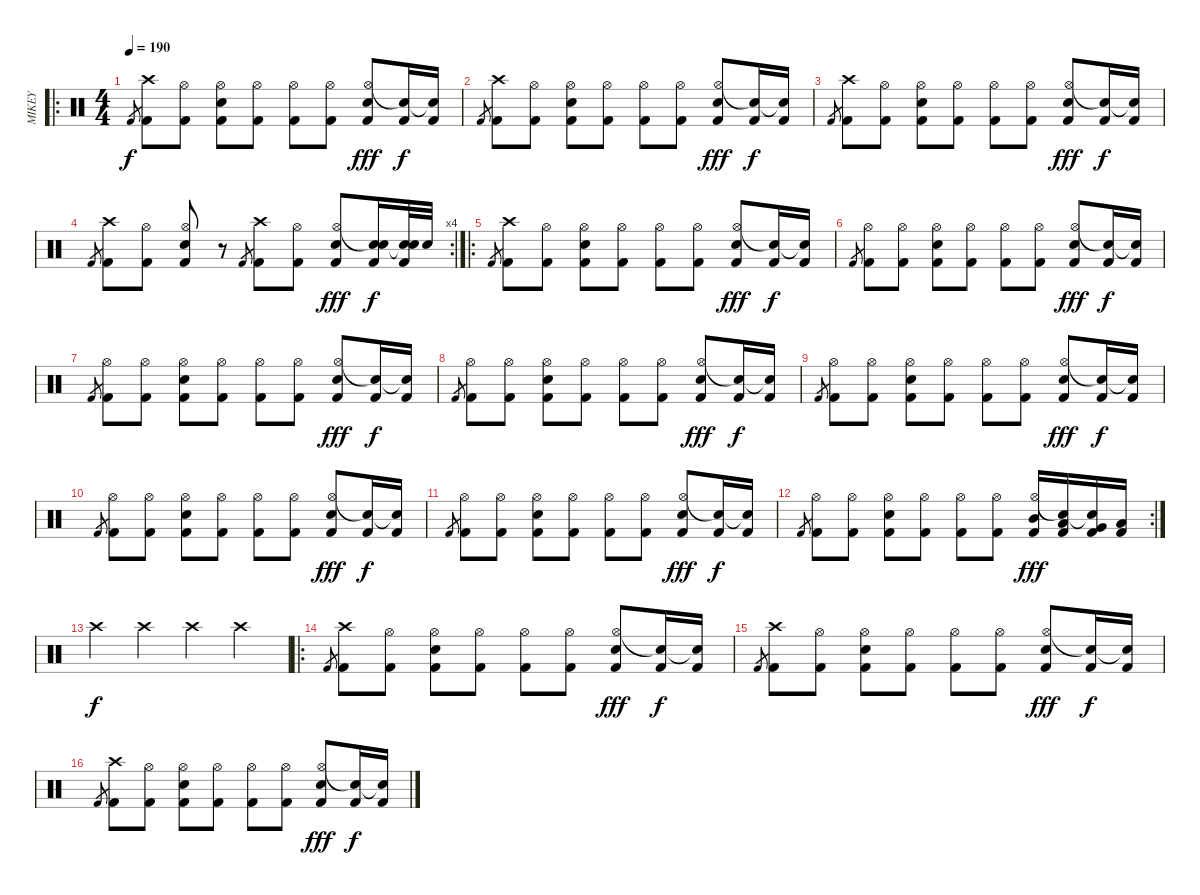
\track ("MIKEY" "MIKEY") {instrument percussion}
\staff {score}
\articulation defaults
\ro
\ts (4 4)
\tempo 190
\clef neutral
\ks c "Kick (hit) 2".8{gr dy f}
("Crash high (hit)" "Kick (hit) 2").8 ("Hi-Hat (open)" "Kick (hit) 2").8 ("Hi-Hat (open)" "Electric Snare (hit)" "Kick (hit) 2").8 ("Hi-Hat (open)" "Kick (hit) 2").8 ("Hi-Hat (open)" "Kick (hit) 2").8 ("Hi-Hat (open)" "Kick (hit) 2").8 ("Hi-Hat (open)" "Electric Snare (hit)" "Kick (hit) 2").8{dy fff} ("Snare (hit)"{t} "Kick (hit) 2").16{dy f} ("Snare (hit)"{t} "Kick (hit) 2").16 |
"Kick (hit) 2".8{gr} ("Crash high (hit)" "Kick (hit) 2").8 ("Hi-Hat (open)" "Kick (hit) 2").8 ("Hi-Hat (open)" "Electric Snare (hit)" "Kick (hit) 2").8 ("Hi-Hat (open)" "Kick (hit) 2").8 ("Hi-Hat (open)" "Kick (hit) 2").8 ("Hi-Hat (open)" "Kick (hit) 2").8 ("Hi-Hat (open)" "Electric Snare (hit)" "Kick (hit) 2").8{dy fff} ("Snare (hit)"{t} "Kick (hit) 2").16{dy f} ("Snare (hit)"{t} "Kick (hit) 2").16 |
"Kick (hit) 2".8{gr} ("Crash high (hit)" "Kick (hit) 2").8 ("Hi-Hat (open)" "Kick (hit) 2").8 ("Hi-Hat (open)" "Electric Snare (hit)" "Kick (hit) 2").8 ("Hi-Hat (open)" "Kick (hit) 2").8 ("Hi-Hat (open)" "Kick (hit) 2").8 ("Hi-Hat (open)" "Kick (hit) 2").8 ("Hi-Hat (open)" "Electric Snare (hit)" "Kick (hit) 2").8{dy fff} ("Snare (hit)"{t} "Kick (hit) 2").16{dy f} ("Snare (hit)"{t} "Kick (hit) 2").16 |
\rc 4 "Kick (hit) 2".8{gr}
("Crash high (hit)" "Kick (hit) 2").8 ("Hi-Hat (open)" "Kick (hit) 2").8 ("Hi-Hat (open)" "Electric Snare (hit)" "Kick (hit) 2").8 r.8 "Kick (hit) 2".8{gr} ("Crash high (hit)" "Kick (hit) 2").8 ("Hi-Hat (open)" "Kick (hit) 2").8 ("Hi-Hat (open)" "Electric Snare (hit)" "Kick (hit) 2").8{dy fff} ("Snare (hit)"{t} "Electric Snare (hit)" "Kick (hit) 2").16{dy f} ("Snare (hit)"{t} "Electric Snare (hit)" "Kick (hit) 2").32 "Electric Snare (hit)".32 |
\ro "Kick (hit) 2".8{gr}
("Crash high (hit)" "Kick (hit) 2").8 ("Hi-Hat (open)" "Kick (hit) 2").8 ("Hi-Hat (open)" "Electric Snare (hit)" "Kick (hit) 2").8 ("Hi-Hat (open)" "Kick (hit) 2").8 ("Hi-Hat (open)" "Kick (hit) 2").8 ("Hi-Hat (open)" "Kick (hit) 2").8 ("Hi-Hat (open)" "Electric Snare (hit)" "Kick (hit) 2").8{dy fff} ("Snare (hit)"{t} "Kick (hit) 2").16{dy f} ("Snare (hit)"{t} "Kick (hit) 2").16 |
"Kick (hit) 2".8{gr} ("Hi-Hat (open)" "Kick (hit) 2").8 ("Hi-Hat (open)" "Kick (hit) 2").8 ("Hi-Hat (open)" "Electric Snare (hit)" "Kick (hit) 2").8 ("Hi-Hat (open)" "Kick (hit) 2").8 ("Hi-Hat (open)" "Kick (hit) 2").8 ("Hi-Hat (open)" "Kick (hit) 2").8 ("Hi-Hat (open)" "Electric Snare (hit)" "Kick (hit) 2").8{dy fff} ("Snare (hit)"{t} "Kick (hit) 2").16{dy f} ("Snare (hit)"{t} "Kick (hit) 2").16 |
"Kick (hit) 2".8{gr} ("Hi-Hat (open)" "Kick (hit) 2").8 ("Hi-Hat (open)" "Kick (hit) 2").8 ("Hi-Hat (open)" "Electric Snare (hit)" "Kick (hit) 2").8 ("Hi-Hat (open)" "Kick (hit) 2").8 ("Hi-Hat (open)" "Kick (hit) 2").8 ("Hi-Hat (open)" "Kick (hit) 2").8 ("Hi-Hat (open)" "Electric Snare (hit)" "Kick (hit) 2").8{dy fff} ("Snare (hit)"{t} "Kick (hit) 2").16{dy f} ("Snare (hit)"{t} "Kick (hit) 2").16 |
"Kick (hit) 2".8{gr} ("Hi-Hat (open)" "Kick (hit) 2").8 ("Hi-Hat (open)" "Kick (hit) 2").8 ("Hi-Hat (open)" "Electric Snare (hit)" "Kick (hit) 2").8 ("Hi-Hat (open)" "Kick (hit) 2").8 ("Hi-Hat (open)" "Kick (hit) 2").8 ("Hi-Hat (open)" "Kick (hit) 2").8 ("Hi-Hat (open)" "Electric Snare (hit)" "Kick (hit) 2").8{dy fff} ("Snare (hit)"{t} "Kick (hit) 2").16{dy f} ("Snare (hit)"{t} "Kick (hit) 2").16 |
"Kick (hit) 2".8{gr} ("Hi-Hat (open)" "Kick (hit) 2").8 ("Hi-Hat (open)" "Kick (hit) 2").8 ("Hi-Hat (open)" "Electric Snare (hit)" "Kick (hit) 2").8 ("Hi-Hat (open)" "Kick (hit) 2").8 ("Hi-Hat (open)" "Kick (hit) 2").8 ("Hi-Hat (open)" "Kick (hit) 2").8 ("Hi-Hat (open)" "Electric Snare (hit)" "Kick (hit) 2").8{dy fff} ("Snare (hit)"{t} "Kick (hit) 2").16{dy f} ("Snare (hit)"{t} "Kick (hit) 2").16 |
"Kick (hit) 2".8{gr} ("Hi-Hat (open)" "Kick (hit) 2").8 ("Hi-Hat (open)" "Kick (hit) 2").8 ("Hi-Hat (open)" "Electric Snare (hit)" "Kick (hit) 2").8 ("Hi-Hat (open)" "Kick (hit) 2").8 ("Hi-Hat (open)" "Kick (hit) 2").8 ("Hi-Hat (open)" "Kick (hit) 2").8 ("Hi-Hat (open)" "Electric Snare (hit)" "Kick (hit) 2").8{dy fff} ("Snare (hit)"{t} "Kick (hit) 2").16{dy f} ("Snare (hit)"{t} "Kick (hit) 2").16 |
"Kick (hit) 2".8{gr} ("Hi-Hat (open)" "Kick (hit) 2").8 ("Hi-Hat (open)" "Kick (hit) 2").8 ("Hi-Hat (open)" "Electric Snare (hit)" "Kick (hit) 2").8 ("Hi-Hat (open)" "Kick (hit) 2").8 ("Hi-Hat (open)" "Kick (hit) 2").8 ("Hi-Hat (open)" "Kick (hit) 2").8 ("Hi-Hat (open)" "Electric Snare (hit)" "Kick (hit) 2").8{dy fff} ("Snare (hit)"{t} "Kick (hit) 2").16{dy f} ("Snare (hit)"{t} "Kick (hit) 2").16 |
\rc 2 "Kick (hit) 2".8{gr}
("Hi-Hat (open)" "Kick (hit) 2").8 ("Hi-Hat (open)" "Kick (hit) 2").8 ("Hi-Hat (open)" "Electric Snare (hit)" "Kick (hit) 2").8 ("Hi-Hat (open)" "Kick (hit) 2").8 ("Hi-Hat (open)" "Kick (hit) 2").8 ("Hi-Hat (open)" "Kick (hit) 2").8 ("Hi-Hat (open)" "Mid Tom (hit)" "Kick (hit) 2").16{dy fff} ("Snare (hit)"{t} "Low Tom (hit)" "Kick (hit) 2").16 ("Snare (hit)"{t} "Very Low Tom (hit)" "Kick (hit) 2").16 ("Low Floor Tom (hit)" "Kick (hit) 2").16 |
"Crash high (hit)".4{dy f} "Crash high (hit)".4 "Crash high (hit)".4 "Crash high (hit)".4 |
\ro "Kick (hit) 2".8{gr}
("Crash high (hit)" "Kick (hit) 2").8 ("Hi-Hat (open)" "Kick (hit) 2").8 ("Hi-Hat (open)" "Electric Snare (hit)" "Kick (hit) 2").8 ("Hi-Hat (open)" "Kick (hit) 2").8 ("Hi-Hat (open)" "Kick (hit) 2").8 ("Hi-Hat (open)" "Kick (hit) 2").8 ("Hi-Hat (open)" "Electric Snare (hit)" "Kick (hit) 2").8{dy fff} ("Snare (hit)"{t} "Kick (hit) 2").16{dy f} ("Snare (hit)"{t} "Kick (hit) 2").16 |
"Kick (hit) 2".8{gr} ("Crash high (hit)" "Kick (hit) 2").8 ("Hi-Hat (open)" "Kick (hit) 2").8 ("Hi-Hat (open)" "Electric Snare (hit)" "Kick (hit) 2").8 ("Hi-Hat (open)" "Kick (hit) 2").8 ("Hi-Hat (open)" "Kick (hit) 2").8 ("Hi-Hat (open)" "Kick (hit) 2").8 ("Hi-Hat (open)" "Electric Snare (hit)" "Kick (hit) 2").8{dy fff} ("Snare (hit)"{t} "Kick (hit) 2").16{dy f} ("Snare (hit)"{t} "Kick (hit) 2").16 |
"Kick (hit) 2".8{gr} ("Crash high (hit)" "Kick (hit) 2").8 ("Hi-Hat (open)" "Kick (hit) 2").8 ("Hi-Hat (open)" "Electric Snare (hit)" "Kick (hit) 2").8 ("Hi-Hat (open)" "Kick (hit) 2").8 ("Hi-Hat (open)" "Kick (hit) 2").8 ("Hi-Hat (open)" "Kick (hit) 2").8 ("Hi-Hat (open)" "Electric Snare (hit)" "Kick (hit) 2").8{dy fff} ("Snare (hit)"{t} "Kick (hit) 2").16{dy f} ("Snare (hit)"{t} "Kick (hit) 2").16
